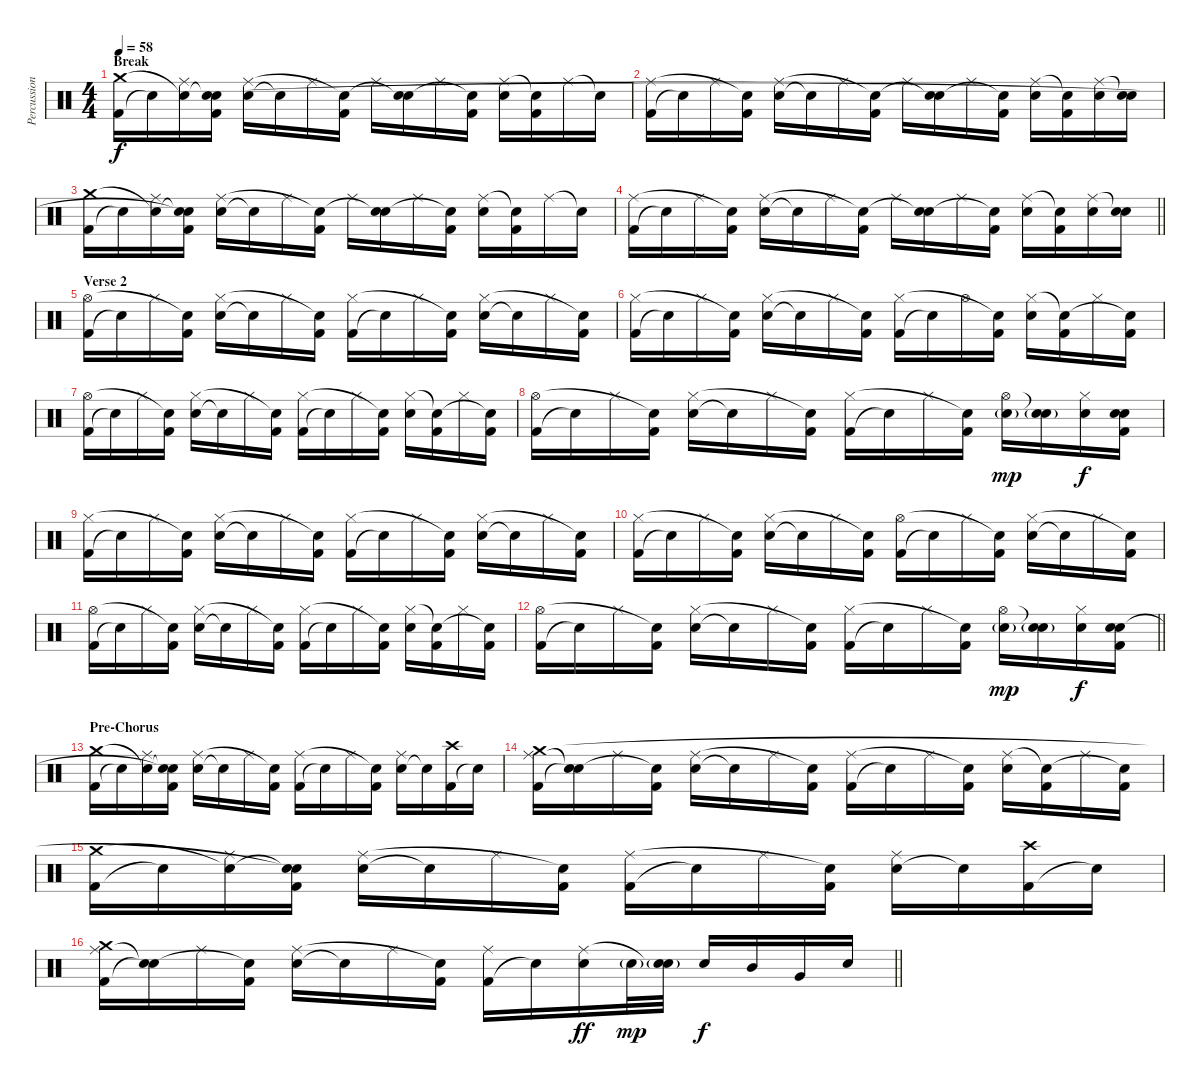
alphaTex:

\track ("Percussion" "Percussion") {instrument percussion}
\staff {score}
\articulation defaults
\ts (4 4)
\section ("" "Break")
\tempo 58
\clef neutral
\ks c
("Kick (hit) 2" "Crash medium (hit)").16{dy f} "Snare (hit)"{t}.16 ("Ride (middle)" "Snare (hit)"{t}).16 ("Kick (hit) 2" "Snare (hit)"{t} "Snare (hit)").16 ("Electric Snare (hit)" "Ride (middle)").16 "Snare (hit)"{t}.16 "Ride (middle)".16 ("Kick (hit) 2" "Snare (hit)"{t}).16 "Ride (middle)".16 ("Electric Snare (hit)" "Snare (hit)"{t}).16 "Ride (middle)".16 ("Kick (hit) 2" "Snare (hit)"{t}).16 ("Electric Snare (hit)" "Ride (middle)").16 ("Kick (hit) 2" "Snare (hit)"{t}).16 "Ride (middle)".16 "Snare (hit)"{t}.16 |
("Kick (hit) 2" "Ride (middle)").16 "Snare (hit)"{t}.16 "Ride (middle)".16 ("Kick (hit) 2" "Snare (hit)"{t}).16 ("Electric Snare (hit)" "Ride (middle)").16 "Snare (hit)"{t}.16 "Ride (middle)".16 ("Kick (hit) 2" "Snare (hit)"{t}).16 "Ride (middle)".16 ("Electric Snare (hit)" "Snare (hit)"{t}).16 "Ride (middle)".16 ("Kick (hit) 2" "Snare (hit)"{t}).16 ("Electric Snare (hit)" "Ride (middle)").16 ("Kick (hit) 2" "Snare (hit)"{t}).16 ("Electric Snare (hit)" "Ride (middle)").16 ("Electric Snare (hit)" "Snare (hit)"{t}).16 |
("Kick (hit) 2" "Crash medium (hit)").16 "Snare (hit)"{t}.16 ("Ride (middle)" "Snare (hit)"{t}).16 ("Kick (hit) 2" "Snare (hit)"{t} "Snare (hit)"{t}).16 ("Electric Snare (hit)" "Ride (middle)").16 "Snare (hit)"{t}.16 "Ride (middle)".16 ("Kick (hit) 2" "Snare (hit)"{t}).16 "Ride (middle)".16 ("Electric Snare (hit)" "Snare (hit)"{t}).16 "Ride (middle)".16 ("Kick (hit) 2" "Snare (hit)"{t}).16 ("Electric Snare (hit)" "Ride (middle)").16 ("Kick (hit) 2" "Snare (hit)"{t}).16 "Ride (middle)".16 "Snare (hit)"{t}.16 |
\barLineRight lightlight
("Kick (hit) 2" "Ride (middle)").16 "Snare (hit)"{t}.16 "Ride (middle)".16 ("Kick (hit) 2" "Snare (hit)"{t}).16 ("Electric Snare (hit)" "Ride (middle)").16 "Snare (hit)"{t}.16 "Ride (middle)".16 ("Kick (hit) 2" "Snare (hit)"{t}).16 "Ride (middle)".16 ("Electric Snare (hit)" "Snare (hit)"{t}).16 "Ride (middle)".16 ("Kick (hit) 2" "Snare (hit)"{t}).16 ("Electric Snare (hit)" "Ride (middle)").16 ("Kick (hit) 2" "Snare (hit)"{t}).16 ("Electric Snare (hit)" "Ride (middle)").16 ("Electric Snare (hit)" "Snare (hit)"{t}).16 |
\section ("" "Verse 2")
("Kick (hit) 2" "Hi-Hat (open)").16 "Snare (hit)"{t}.16 "Hi-Hat (closed)".16 ("Kick (hit) 2" "Snare (hit)"{t}).16 ("Electric Snare (hit)" "Hi-Hat (closed)").16 "Snare (hit)"{t}.16 "Hi-Hat (closed)".16 ("Kick (hit) 2" "Snare (hit)"{t}).16 ("Kick (hit) 2" "Hi-Hat (closed)").16 "Snare (hit)"{t}.16 "Hi-Hat (closed)".16 ("Kick (hit) 2" "Snare (hit)"{t}).16 ("Electric Snare (hit)" "Hi-Hat (closed)").16 "Snare (hit)"{t}.16 "Hi-Hat (closed)".16 ("Kick (hit) 2" "Snare (hit)"{t}).16 |
("Kick (hit) 2" "Hi-Hat (closed)").16 "Snare (hit)"{t}.16 "Hi-Hat (closed)".16 ("Kick (hit) 2" "Snare (hit)"{t}).16 ("Electric Snare (hit)" "Hi-Hat (closed)").16 "Snare (hit)"{t}.16 "Hi-Hat (closed)".16 ("Kick (hit) 2" "Snare (hit)"{t}).16 ("Kick (hit) 2" "Hi-Hat (closed)").16 "Snare (hit)"{t}.16 "Hi-Hat (open)".16 ("Kick (hit) 2" "Snare (hit)"{t}).16 ("Electric Snare (hit)" "Hi-Hat (closed)").16 ("Kick (hit) 2" "Snare (hit)"{t}).16 "Hi-Hat (closed)".16 ("Kick (hit) 2" "Snare (hit)"{t}).16 |
("Kick (hit) 2" "Hi-Hat (open)").16 "Snare (hit)"{t}.16 "Hi-Hat (closed)".16 ("Kick (hit) 2" "Snare (hit)"{t}).16 ("Electric Snare (hit)" "Hi-Hat (closed)").16 "Snare (hit)"{t}.16 "Hi-Hat (closed)".16 ("Kick (hit) 2" "Snare (hit)"{t}).16 ("Kick (hit) 2" "Hi-Hat (closed)").16 "Snare (hit)"{t}.16 "Hi-Hat (closed)".16 ("Kick (hit) 2" "Snare (hit)"{t}).16 ("Electric Snare (hit)" "Hi-Hat (closed)").16 ("Kick (hit) 2" "Snare (hit)"{t}).16 "Hi-Hat (closed)".16 ("Kick (hit) 2" "Snare (hit)"{t}).16 |
("Kick (hit) 2" "Hi-Hat (open)").16 "Snare (hit)"{t}.16 "Hi-Hat (closed)".16 ("Kick (hit) 2" "Snare (hit)"{t}).16 ("Electric Snare (hit)" "Hi-Hat (closed)").16 "Snare (hit)"{t}.16 "Hi-Hat (closed)".16 ("Kick (hit) 2" "Snare (hit)"{t}).16 ("Kick (hit) 2" "Hi-Hat (closed)").16 "Snare (hit)"{t}.16 "Hi-Hat (closed)".16 ("Kick (hit) 2" "Snare (hit)"{t}).16 ("Electric Snare (hit)"{g} "Hi-Hat (open)").16{dy mp} ("Electric Snare (hit)"{g} "Snare (hit)"{t}).16 ("Electric Snare (hit)" "Hi-Hat (closed)").16{dy f} ("Kick (hit) 2" "Electric Snare (hit)" "Snare (hit)").16 |
("Kick (hit) 2" "Hi-Hat (closed)").16 "Snare (hit)"{t}.16 "Hi-Hat (closed)".16 ("Kick (hit) 2" "Snare (hit)"{t}).16 ("Electric Snare (hit)" "Hi-Hat (closed)").16 "Snare (hit)"{t}.16 "Hi-Hat (closed)".16 ("Kick (hit) 2" "Snare (hit)"{t}).16 ("Kick (hit) 2" "Hi-Hat (closed)").16 "Snare (hit)"{t}.16 "Hi-Hat (closed)".16 ("Kick (hit) 2" "Snare (hit)"{t}).16 ("Electric Snare (hit)" "Hi-Hat (closed)").16 "Snare (hit)"{t}.16 "Hi-Hat (closed)".16 ("Kick (hit) 2" "Snare (hit)"{t}).16 |
("Kick (hit) 2" "Hi-Hat (closed)").16 "Snare (hit)"{t}.16 "Hi-Hat (closed)".16 ("Kick (hit) 2" "Snare (hit)"{t}).16 ("Electric Snare (hit)" "Hi-Hat (closed)").16 "Snare (hit)"{t}.16 "Hi-Hat (closed)".16 ("Kick (hit) 2" "Snare (hit)"{t}).16 ("Kick (hit) 2" "Hi-Hat (open)").16 "Snare (hit)"{t}.16 "Hi-Hat (closed)".16 ("Kick (hit) 2" "Snare (hit)"{t}).16 ("Electric Snare (hit)" "Hi-Hat (closed)").16 "Snare (hit)"{t}.16 "Hi-Hat (closed)".16 ("Kick (hit) 2" "Snare (hit)"{t}).16 |
("Kick (hit) 2" "Hi-Hat (open)").16 "Snare (hit)"{t}.16 "Hi-Hat (closed)".16 ("Kick (hit) 2" "Snare (hit)"{t}).16 ("Electric Snare (hit)" "Hi-Hat (closed)").16 "Snare (hit)"{t}.16 "Hi-Hat (closed)".16 ("Kick (hit) 2" "Snare (hit)"{t}).16 ("Kick (hit) 2" "Hi-Hat (closed)").16 "Snare (hit)"{t}.16 "Hi-Hat (closed)".16 ("Kick (hit) 2" "Snare (hit)"{t}).16 ("Electric Snare (hit)" "Hi-Hat (closed)").16 ("Kick (hit) 2" "Snare (hit)"{t}).16 "Hi-Hat (closed)".16 ("Kick (hit) 2" "Snare (hit)"{t}).16 |
\barLineRight lightlight
("Kick (hit) 2" "Hi-Hat (open)").16 "Snare (hit)"{t}.16 "Hi-Hat (closed)".16 ("Kick (hit) 2" "Snare (hit)"{t}).16 ("Electric Snare (hit)" "Hi-Hat (closed)").16 "Snare (hit)"{t}.16 "Hi-Hat (closed)".16 ("Kick (hit) 2" "Snare (hit)"{t}).16 ("Kick (hit) 2" "Hi-Hat (closed)").16 "Snare (hit)"{t}.16 "Hi-Hat (closed)".16 ("Kick (hit) 2" "Snare (hit)"{t}).16 ("Electric Snare (hit)"{g} "Hi-Hat (open)").16{dy mp} ("Electric Snare (hit)"{g} "Snare (hit)"{t}).16 ("Electric Snare (hit)" "Hi-Hat (closed)").16{dy f} ("Kick (hit) 2" "Electric Snare (hit)" "Snare (hit)").16 |
\section ("" "Pre-Chorus")
("Kick (hit) 2" "Crash medium (hit)").16 "Snare (hit)"{t}.16 ("Ride (middle)" "Snare (hit)"{t}).16 ("Kick (hit) 2" "Snare (hit)"{t} "Snare (hit)"{t}).16 ("Electric Snare (hit)" "Ride (middle)").16 "Snare (hit)"{t}.16 "Ride (middle)".16 ("Kick (hit) 2" "Snare (hit)"{t}).16 ("Kick (hit) 2" "Ride (middle)").16 "Snare (hit)"{t}.16 "Ride (middle)".16 ("Kick (hit) 2" "Snare (hit)"{t}).16 ("Electric Snare (hit)" "Ride (middle)").16 "Snare (hit)"{t}.16 ("Kick (hit) 2" "Crash high (hit)").16 "Snare (hit)"{t}.16 |
("Kick (hit) 2" "Ride (middle)" "Crash medium (hit)").16 ("Snare (hit)"{t} "Snare (hit)"{t}).16 "Ride (middle)".16 ("Kick (hit) 2" "Snare (hit)"{t}).16 ("Electric Snare (hit)" "Ride (middle)").16 "Snare (hit)"{t}.16 "Ride (middle)".16 ("Kick (hit) 2" "Snare (hit)"{t}).16 ("Kick (hit) 2" "Ride (middle)").16 "Snare (hit)"{t}.16 "Ride (middle)".16 ("Kick (hit) 2" "Snare (hit)"{t}).16 ("Electric Snare (hit)" "Ride (middle)").16 ("Kick (hit) 2" "Snare (hit)"{t}).16 "Ride (middle)".16 ("Kick (hit) 2" "Snare (hit)"{t}).16 |
("Kick (hit) 2" "Crash medium (hit)").16 "Snare (hit)"{t}.16 ("Ride (middle)" "Snare (hit)"{t}).16 ("Kick (hit) 2" "Snare (hit)"{t} "Snare (hit)"{t}).16 ("Electric Snare (hit)" "Ride (middle)").16 "Snare (hit)"{t}.16 "Ride (middle)".16 ("Kick (hit) 2" "Snare (hit)"{t}).16 ("Kick (hit) 2" "Ride (middle)").16 "Snare (hit)"{t}.16 "Ride (middle)".16 ("Kick (hit) 2" "Snare (hit)"{t}).16 ("Electric Snare (hit)" "Ride (middle)").16 "Snare (hit)"{t}.16 ("Kick (hit) 2" "Crash high (hit)").16 "Snare (hit)"{t}.16 |
\barLineRight lightlight
("Kick (hit) 2" "Ride (middle)" "Crash medium (hit)").16 ("Snare (hit)"{t} "Snare (hit)"{t}).16 "Ride (middle)".16 ("Kick (hit) 2" "Snare (hit)"{t}).16 ("Electric Snare (hit)" "Ride (middle)").16 "Snare (hit)"{t}.16 "Ride (middle)".16 ("Kick (hit) 2" "Snare (hit)"{t}).16 ("Kick (hit) 2" "Ride (middle)").16 "Snare (hit)"{t}.16 ("Electric Snare (hit)" "Ride (middle)").16{dy ff} "Electric Snare (hit)"{g}.32{dy mp} ("Electric Snare (hit)"{g} "Snare (hit)"{t}).32 "Electric Snare (hit)".16{dy f} "Mid Tom (hit)".16 "Very Low Tom (hit)".16 "Electric Snare (hit)".16
